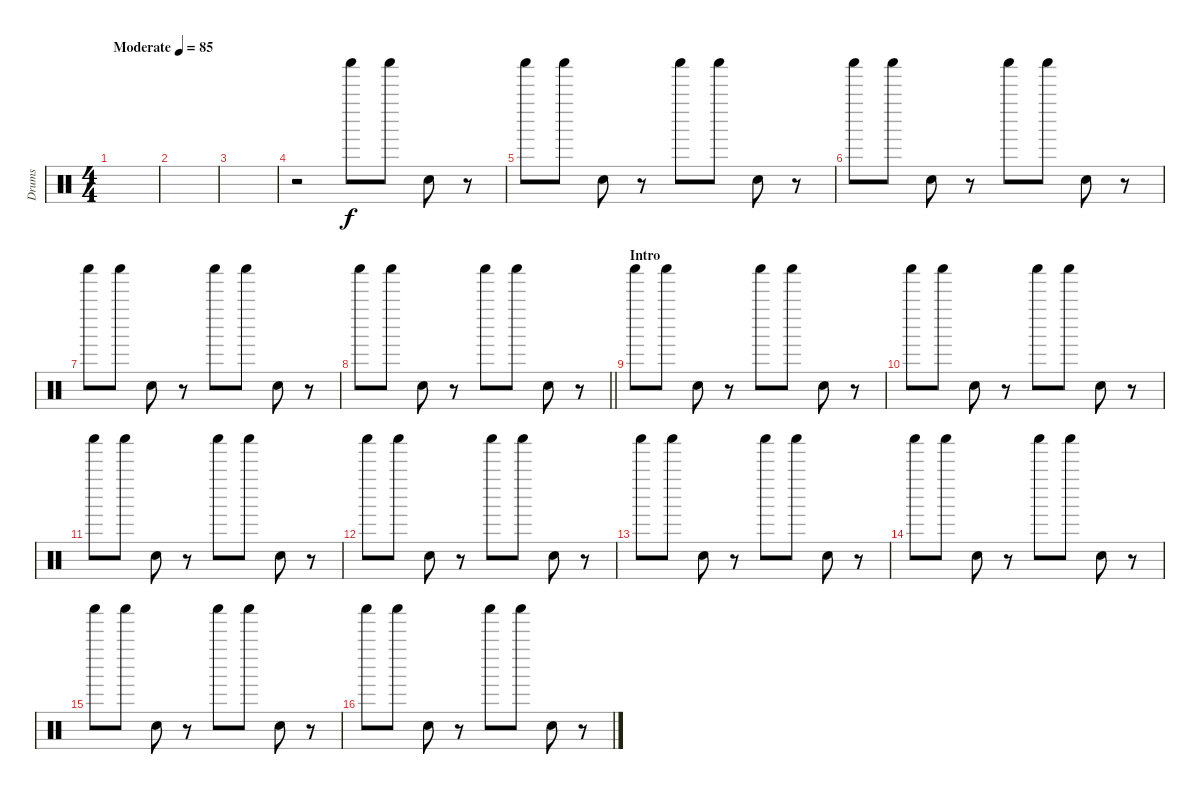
\track ("Drums" "Drums") {instrument percussion}
\staff {score}
\articulation defaults
\ts (4 4)
\tempo (85 "Moderate")
\clef neutral
\ks c
|
|
|
r.2 "Shaker (hit)".8 "Shaker (hit)".8 "Electric Snare (hit)".8 r.8 |
"Shaker (hit)".8 "Shaker (hit)".8 "Electric Snare (hit)".8 r.8 "Shaker (hit)".8 "Shaker (hit)".8 "Electric Snare (hit)".8 r.8 |
"Shaker (hit)".8 "Shaker (hit)".8 "Electric Snare (hit)".8 r.8 "Shaker (hit)".8 "Shaker (hit)".8 "Electric Snare (hit)".8 r.8 |
"Shaker (hit)".8 "Shaker (hit)".8 "Electric Snare (hit)".8 r.8 "Shaker (hit)".8 "Shaker (hit)".8 "Electric Snare (hit)".8 r.8 |
\barLineRight lightlight "Shaker (hit)".8 "Shaker (hit)".8 "Electric Snare (hit)".8
r.8 "Shaker (hit)".8 "Shaker (hit)".8 "Electric Snare (hit)".8 r.8 |
\section ("" "Intro")
"Shaker (hit)".8 "Shaker (hit)".8 "Electric Snare (hit)".8 r.8 "Shaker (hit)".8 "Shaker (hit)".8 "Electric Snare (hit)".8 r.8 |
"Shaker (hit)".8 "Shaker (hit)".8 "Electric Snare (hit)".8 r.8 "Shaker (hit)".8 "Shaker (hit)".8 "Electric Snare (hit)".8 r.8 |
"Shaker (hit)".8 "Shaker (hit)".8 "Electric Snare (hit)".8 r.8 "Shaker (hit)".8 "Shaker (hit)".8 "Electric Snare (hit)".8 r.8 |
"Shaker (hit)".8 "Shaker (hit)".8 "Electric Snare (hit)".8 r.8 "Shaker (hit)".8 "Shaker (hit)".8 "Electric Snare (hit)".8 r.8 |
"Shaker (hit)".8 "Shaker (hit)".8 "Electric Snare (hit)".8 r.8 "Shaker (hit)".8 "Shaker (hit)".8 "Electric Snare (hit)".8 r.8 |
"Shaker (hit)".8 "Shaker (hit)".8 "Electric Snare (hit)".8 r.8 "Shaker (hit)".8 "Shaker (hit)".8 "Electric Snare (hit)".8 r.8 |
"Shaker (hit)".8 "Shaker (hit)".8 "Electric Snare (hit)".8 r.8 "Shaker (hit)".8 "Shaker (hit)".8 "Electric Snare (hit)".8 r.8 |
"Shaker (hit)".8{volume 13} "Shaker (hit)".8 "Electric Snare (hit)".8 r.8 "Shaker (hit)".8{volume 13} "Shaker (hit)".8 "Electric Snare (hit)".8 r.8
